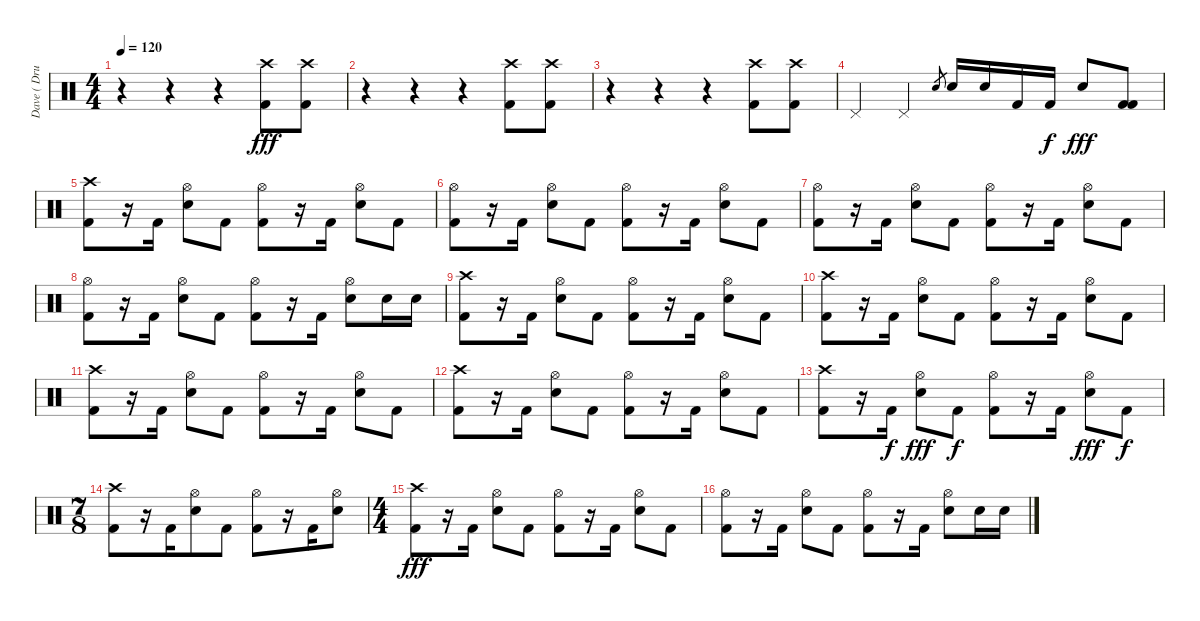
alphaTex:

\track ("Dave ( Drumm )" "Dave ( Dru") {instrument percussion}
\staff {score}
\articulation defaults
\ts (4 4)
\tempo 120
\clef neutral
\ks c
r.4{dy fff} r.4 r.4 ("Crash high (hit)" "Kick (hit) 2").8 ("Crash high (hit)" "Kick (hit) 2").8 |
r.4 r.4 r.4 ("Crash high (hit)" "Kick (hit) 2").8 ("Crash high (hit)" "Kick (hit) 2").8 |
r.4 r.4 r.4 ("Crash high (hit)" "Kick (hit) 2").8 ("Crash high (hit)" "Kick (hit) 2").8 |
"Pedal Hi-Hat (hit)".4 "Pedal Hi-Hat (hit)".4 "Snare (hit) 2".8{gr} "Snare (hit) 2".16 "Snare (hit) 2".16 "Kick (hit) 2".16 "Kick (hit) 2".16{dy f} "Snare (hit) 2".8{dy fff} ("Kick (hit) 2" "Kick (hit) 2").8 |
("Crash high (hit)" "Kick (hit) 2").8 r.16 "Kick (hit) 2".16 ("Hi-Hat (open)" "Snare (hit) 2").8 "Kick (hit) 2".8 ("Hi-Hat (open)" "Kick (hit) 2").8 r.16 "Kick (hit) 2".16 ("Hi-Hat (open)" "Snare (hit) 2").8 "Kick (hit) 2".8 |
("Hi-Hat (open)" "Kick (hit) 2").8 r.16 "Kick (hit) 2".16 ("Hi-Hat (open)" "Snare (hit) 2").8 "Kick (hit) 2".8 ("Hi-Hat (open)" "Kick (hit) 2").8 r.16 "Kick (hit) 2".16 ("Hi-Hat (open)" "Snare (hit) 2").8 "Kick (hit) 2".8 |
("Hi-Hat (open)" "Kick (hit) 2").8 r.16 "Kick (hit) 2".16 ("Hi-Hat (open)" "Snare (hit) 2").8 "Kick (hit) 2".8 ("Hi-Hat (open)" "Kick (hit) 2").8 r.16 "Kick (hit) 2".16 ("Hi-Hat (open)" "Snare (hit) 2").8 "Kick (hit) 2".8 |
("Hi-Hat (open)" "Kick (hit) 2").8 r.16 "Kick (hit) 2".16 ("Hi-Hat (open)" "Snare (hit) 2").8 "Kick (hit) 2".8 ("Hi-Hat (open)" "Kick (hit) 2").8 r.16 "Kick (hit) 2".16 ("Hi-Hat (open)" "Snare (hit) 2").8 "Snare (hit) 2".16 "Snare (hit) 2".16 |
("Crash high (hit)" "Kick (hit) 2").8 r.16 "Kick (hit) 2".16 ("Hi-Hat (open)" "Snare (hit) 2").8 "Kick (hit) 2".8 ("Hi-Hat (open)" "Kick (hit) 2").8 r.16 "Kick (hit) 2".16 ("Hi-Hat (open)" "Snare (hit) 2").8 "Kick (hit) 2".8 |
("Crash high (hit)" "Kick (hit) 2").8 r.16 "Kick (hit) 2".16 ("Hi-Hat (open)" "Snare (hit) 2").8 "Kick (hit) 2".8 ("Hi-Hat (open)" "Kick (hit) 2").8 r.16 "Kick (hit) 2".16 ("Hi-Hat (open)" "Snare (hit) 2").8 "Kick (hit) 2".8 |
("Crash high (hit)" "Kick (hit) 2").8 r.16 "Kick (hit) 2".16 ("Hi-Hat (open)" "Snare (hit) 2").8 "Kick (hit) 2".8 ("Hi-Hat (open)" "Kick (hit) 2").8 r.16 "Kick (hit) 2".16 ("Hi-Hat (open)" "Snare (hit) 2").8 "Kick (hit) 2".8 |
("Crash high (hit)" "Kick (hit) 2").8 r.16 "Kick (hit) 2".16 ("Hi-Hat (open)" "Snare (hit) 2").8 "Kick (hit) 2".8 ("Hi-Hat (open)" "Kick (hit) 2").8 r.16 "Kick (hit) 2".16 ("Hi-Hat (open)" "Snare (hit) 2").8 "Kick (hit) 2".8 |
("Crash high (hit)" "Kick (hit) 2").8 r.16 "Kick (hit) 2".16{dy f} ("Hi-Hat (open)" "Snare (hit) 2").8{dy fff} "Kick (hit) 2".8{dy f} ("Hi-Hat (open)" "Kick (hit) 2").8 r.16 "Kick (hit) 2".16 ("Hi-Hat (open)" "Snare (hit) 2").8{dy fff} "Kick (hit) 2".8{dy f} |
\ts (7 8)
("Crash high (hit)" "Kick (hit) 2").8 r.16 "Kick (hit) 2".16 ("Hi-Hat (open)" "Snare (hit) 2").8 "Kick (hit) 2".8 ("Hi-Hat (open)" "Kick (hit) 2").8 r.16 "Kick (hit) 2".16 ("Hi-Hat (open)" "Snare (hit) 2").8 |
\ts (4 4)
("Crash high (hit)" "Kick (hit) 2").8{dy fff} r.16 "Kick (hit) 2".16 ("Hi-Hat (open)" "Snare (hit) 2").8 "Kick (hit) 2".8 ("Hi-Hat (open)" "Kick (hit) 2").8 r.16 "Kick (hit) 2".16 ("Hi-Hat (open)" "Snare (hit) 2").8 "Kick (hit) 2".8 |
("Hi-Hat (open)" "Kick (hit) 2").8 r.16 "Kick (hit) 2".16 ("Hi-Hat (open)" "Snare (hit) 2").8 "Kick (hit) 2".8 ("Hi-Hat (open)" "Kick (hit) 2").8 r.16 "Kick (hit) 2".16 ("Hi-Hat (open)" "Snare (hit) 2").8 "Snare (hit) 2".16 "Snare (hit) 2".16
